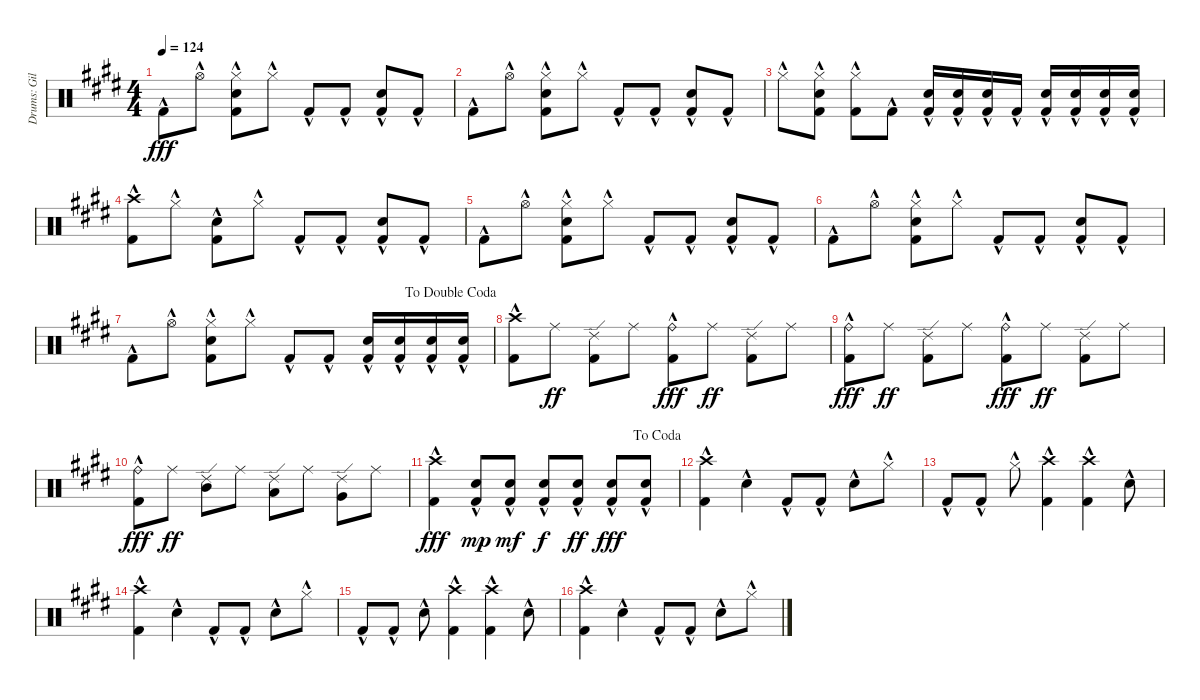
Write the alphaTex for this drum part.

\track ("Drums: Gil" "Drums: Gil") {instrument percussion}
\staff {score}
\articulation defaults
\ts (4 4)
\tempo 124
\clef neutral
\ks e "Kick (hit) 2"{hac}.8{dy fff} "Hi-Hat (open)"{hac}.8
("Hi-Hat (closed)"{hac} "Snare (hit) 2"{hac} "Kick (hit) 2"{hac}).8 "Hi-Hat (closed)"{hac}.8 "Kick (hit) 2"{hac}.8 "Kick (hit) 2"{hac}.8 ("Snare (hit) 2"{hac} "Kick (hit) 2"{hac}).8 "Kick (hit) 2"{hac}.8 |
"Kick (hit) 2"{hac}.8 "Hi-Hat (open)"{hac}.8 ("Hi-Hat (closed)"{hac} "Snare (hit) 2"{hac} "Kick (hit) 2"{hac}).8 "Hi-Hat (closed)"{hac}.8 "Kick (hit) 2"{hac}.8 "Kick (hit) 2"{hac}.8 ("Snare (hit) 2"{hac} "Kick (hit) 2"{hac}).8 "Kick (hit) 2"{hac}.8 |
"Hi-Hat (closed)"{hac}.8 ("Hi-Hat (closed)"{hac} "Snare (hit) 2"{hac} "Kick (hit) 2"{hac}).8 ("Hi-Hat (closed)"{hac} "Kick (hit) 2"{hac}).8 "Kick (hit) 2"{hac}.8 ("Snare (hit) 2"{hac} "Kick (hit) 2"{hac}).16 ("Snare (hit) 2"{hac} "Kick (hit) 2"{hac}).16 ("Snare (hit) 2"{hac} "Kick (hit) 2"{hac}).16 "Kick (hit) 2"{hac}.16 ("Snare (hit) 2"{hac} "Kick (hit) 2"{hac}).16 ("Snare (hit) 2"{hac} "Kick (hit) 2"{hac}).16 ("Snare (hit) 2"{hac} "Kick (hit) 2"{hac}).16 ("Snare (hit) 2"{hac} "Kick (hit) 2"{hac}).16 |
("Crash high (hit)"{hac} "Kick (hit) 2"{hac}).8 "Hi-Hat (closed)"{hac}.8 ("Snare (hit) 2"{hac} "Kick (hit) 2"{hac}).8 "Hi-Hat (closed)"{hac}.8 "Kick (hit) 2"{hac}.8 "Kick (hit) 2"{hac}.8 ("Snare (hit) 2"{hac} "Kick (hit) 2"{hac}).8 "Kick (hit) 2"{hac}.8 |
"Kick (hit) 2"{hac}.8 "Hi-Hat (open)"{hac}.8 ("Hi-Hat (closed)"{hac} "Snare (hit) 2"{hac} "Kick (hit) 2"{hac}).8 "Hi-Hat (closed)"{hac}.8 "Kick (hit) 2"{hac}.8 "Kick (hit) 2"{hac}.8 ("Snare (hit) 2"{hac} "Kick (hit) 2"{hac}).8 "Kick (hit) 2"{hac}.8 |
"Kick (hit) 2"{hac}.8 "Hi-Hat (open)"{hac}.8 ("Hi-Hat (closed)"{hac} "Snare (hit) 2"{hac} "Kick (hit) 2"{hac}).8 "Hi-Hat (closed)"{hac}.8 "Kick (hit) 2"{hac}.8 "Kick (hit) 2"{hac}.8 ("Snare (hit) 2"{hac} "Kick (hit) 2"{hac}).8 "Kick (hit) 2"{hac}.8 |
\jump dadoublecoda "Kick (hit) 2"{hac}.8 "Hi-Hat (open)"{hac}.8
("Hi-Hat (closed)"{hac} "Snare (hit) 2"{hac} "Kick (hit) 2"{hac}).8 "Hi-Hat (closed)"{hac}.8 "Kick (hit) 2"{hac}.8 "Kick (hit) 2"{hac}.8 ("Snare (hit) 2"{hac} "Kick (hit) 2"{hac}).16 ("Snare (hit) 2"{hac} "Kick (hit) 2"{hac}).16 ("Snare (hit) 2"{hac} "Kick (hit) 2"{hac}).16 ("Snare (hit) 2"{hac} "Kick (hit) 2"{hac}).16 |
("Crash high (hit)"{hac} "Kick (hit) 2"{hac}).8 "Ride (middle)".8{dy ff} ("Ride (edge) 2" "Kick (hit) 2").8 "Ride (middle)".8 ("Ride (bell)"{hac} "Kick (hit) 2"{hac}).8{dy fff} "Ride (middle)".8{dy ff} ("Ride (edge) 2" "Kick (hit) 2").8 "Ride (middle)".8 |
("Ride (bell)" "Kick (hit) 2"{hac}).8{dy fff} "Ride (middle)".8{dy ff} ("Ride (edge) 2" "Kick (hit) 2").8 "Ride (middle)".8 ("Ride (bell)"{hac} "Kick (hit) 2"{hac}).8{dy fff} "Ride (middle)".8{dy ff} ("Ride (edge) 2" "Kick (hit) 2").8 "Ride (middle)".8 |
("Ride (bell)"{hac} "Kick (hit) 2"{hac}).8{dy fff} "Ride (middle)".8{dy ff} ("Ride (edge) 2" "Mid Tom (hit)").8 "Ride (middle)".8 ("Ride (edge) 2" "Low Tom (hit)").8 "Ride (middle)".8 ("Ride (edge) 2" "Very Low Tom (hit)").8 "Ride (middle)".8 |
\jump dacoda
("Crash high (hit)"{hac} "Kick (hit) 2"{hac}).4{dy fff} ("Snare (hit) 2"{hac} "Kick (hit) 2"{hac}).8{dy mp} ("Snare (hit) 2"{hac} "Kick (hit) 2"{hac}).8{dy mf} ("Snare (hit) 2"{hac} "Kick (hit) 2"{hac}).8{dy f} ("Snare (hit) 2"{hac} "Kick (hit) 2"{hac}).8{dy ff} ("Snare (hit) 2"{hac} "Kick (hit) 2"{hac}).8{dy fff} ("Snare (hit) 2"{hac} "Kick (hit) 2"{hac}).8 |
("Crash high (hit)"{hac} "Kick (hit) 2"{hac}).4 "Snare (hit) 2"{hac}.4 "Kick (hit) 2"{hac}.8 "Kick (hit) 2"{hac}.8 "Snare (hit) 2"{hac}.8 "Hi-Hat (closed)"{hac}.8 |
"Kick (hit) 2"{hac}.8 "Kick (hit) 2"{hac}.8 "Hi-Hat (closed)"{hac}.8 ("Crash high (hit)"{hac} "Kick (hit) 2"{hac}).4 ("Crash high (hit)"{hac} "Kick (hit) 2"{hac}).4 "Snare (hit) 2"{hac}.8 |
("Crash high (hit)"{hac} "Kick (hit) 2"{hac}).4 "Snare (hit) 2"{hac}.4 "Kick (hit) 2"{hac}.8 "Kick (hit) 2"{hac}.8 "Snare (hit) 2"{hac}.8 "Hi-Hat (closed)"{hac}.8 |
"Kick (hit) 2"{hac}.8 "Kick (hit) 2"{hac}.8 "Snare (hit) 2"{hac}.8 ("Crash high (hit)"{hac} "Kick (hit) 2"{hac}).4 ("Crash high (hit)"{hac} "Kick (hit) 2"{hac}).4 "Snare (hit) 2"{hac}.8 |
("Crash high (hit)"{hac} "Kick (hit) 2"{hac}).4 "Snare (hit) 2"{hac}.4 "Kick (hit) 2"{hac}.8 "Kick (hit) 2"{hac}.8 "Snare (hit) 2"{hac}.8 "Hi-Hat (closed)"{hac}.8
